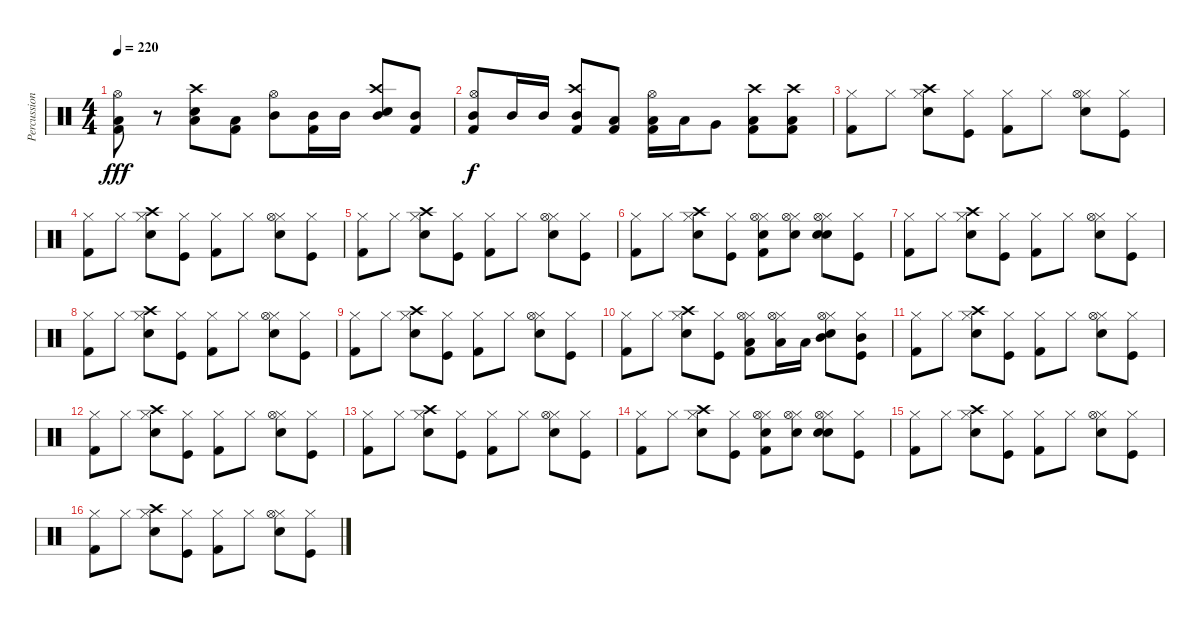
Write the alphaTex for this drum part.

\track ("Percussion" "Percussion") {instrument percussion}
\staff {score}
\articulation defaults
\ts (4 4)
\tempo 220
\clef neutral
\ks c
("Kick (hit) 2" "Low Tom (hit)" "Hi-Hat (open)").8{dy fff} r.8 ("Snare (hit) 2" "Low Tom (hit)" "Crash high (hit)").8 ("Kick (hit) 2" "Low Tom (hit)").8 ("Mid Tom (hit)" "Hi-Hat (open)").8 ("Kick (hit) 2" "Mid Tom (hit)").16 "Mid Tom (hit)".16 ("Snare (hit) 2" "Mid Tom (hit)" "Crash high (hit)").8 ("Kick (hit) 2" "Mid Tom (hit)").8 |
("Mid Tom (hit)" "Hi-Hat (open)" "Kick (hit) 2").8{dy f} "Mid Tom (hit)".16 "Mid Tom (hit)".16 ("Mid Tom (hit)" "Crash high (hit)" "Kick (hit) 2").8 ("Low Tom (hit)" "Kick (hit) 2").8 ("Low Tom (hit)" "Hi-Hat (open)" "Kick (hit) 2").16 "Low Tom (hit)".16 "Very Low Tom (hit)".8 ("Low Tom (hit)" "Crash high (hit)" "Kick (hit) 2").8 ("Low Floor Tom (hit)" "Crash high (hit)" "Kick (hit) 2").8 |
("Kick (hit) 2" "Hi-Hat (closed)").8 "Hi-Hat (closed)".8 ("Snare (hit) 2" "Hi-Hat (closed)" "Crash high (hit)").8 ("Kick (hit)" "Hi-Hat (closed)").8 ("Kick (hit) 2" "Hi-Hat (closed)").8 "Hi-Hat (closed)".8 ("Snare (hit) 2" "Hi-Hat (closed)" "Hi-Hat (open)").8 ("Kick (hit)" "Hi-Hat (closed)").8 |
("Kick (hit) 2" "Hi-Hat (closed)").8 "Hi-Hat (closed)".8 ("Snare (hit) 2" "Hi-Hat (closed)" "Crash high (hit)").8 ("Kick (hit)" "Hi-Hat (closed)").8 ("Kick (hit) 2" "Hi-Hat (closed)").8 "Hi-Hat (closed)".8 ("Snare (hit) 2" "Hi-Hat (closed)" "Hi-Hat (open)").8 ("Kick (hit)" "Hi-Hat (closed)").8 |
("Kick (hit) 2" "Hi-Hat (closed)").8 "Hi-Hat (closed)".8 ("Snare (hit) 2" "Hi-Hat (closed)" "Crash high (hit)").8 ("Kick (hit)" "Hi-Hat (closed)").8 ("Kick (hit) 2" "Hi-Hat (closed)").8 "Hi-Hat (closed)".8 ("Snare (hit) 2" "Hi-Hat (closed)" "Hi-Hat (open)").8 ("Kick (hit)" "Hi-Hat (closed)").8 |
("Kick (hit) 2" "Hi-Hat (closed)").8 "Hi-Hat (closed)".8 ("Snare (hit) 2" "Hi-Hat (closed)" "Crash high (hit)").8 ("Kick (hit)" "Hi-Hat (closed)").8 ("Kick (hit) 2" "Snare (hit) 2" "Hi-Hat (closed)" "Hi-Hat (open)").8 ("Snare (hit) 2" "Hi-Hat (closed)" "Hi-Hat (open)").8 ("Snare (hit) 2" "Snare (hit) 2" "Hi-Hat (closed)" "Hi-Hat (open)").8 ("Kick (hit)" "Hi-Hat (closed)").8 |
("Kick (hit) 2" "Hi-Hat (closed)").8 "Hi-Hat (closed)".8 ("Snare (hit) 2" "Hi-Hat (closed)" "Crash high (hit)").8 ("Kick (hit)" "Hi-Hat (closed)").8 ("Kick (hit) 2" "Hi-Hat (closed)").8 "Hi-Hat (closed)".8 ("Snare (hit) 2" "Hi-Hat (closed)" "Hi-Hat (open)").8 ("Kick (hit)" "Hi-Hat (closed)").8 |
("Kick (hit) 2" "Hi-Hat (closed)").8 "Hi-Hat (closed)".8 ("Snare (hit) 2" "Hi-Hat (closed)" "Crash high (hit)").8 ("Kick (hit)" "Hi-Hat (closed)").8 ("Kick (hit) 2" "Hi-Hat (closed)").8 "Hi-Hat (closed)".8 ("Snare (hit) 2" "Hi-Hat (closed)" "Hi-Hat (open)").8 ("Kick (hit)" "Hi-Hat (closed)").8 |
("Kick (hit) 2" "Hi-Hat (closed)").8 "Hi-Hat (closed)".8 ("Snare (hit) 2" "Hi-Hat (closed)" "Crash high (hit)").8 ("Kick (hit)" "Hi-Hat (closed)").8 ("Kick (hit) 2" "Hi-Hat (closed)").8 "Hi-Hat (closed)".8 ("Snare (hit) 2" "Hi-Hat (closed)" "Hi-Hat (open)").8 ("Kick (hit)" "Hi-Hat (closed)").8 |
("Kick (hit) 2" "Hi-Hat (closed)").8 "Hi-Hat (closed)".8 ("Snare (hit) 2" "Hi-Hat (closed)" "Crash high (hit)").8 ("Kick (hit)" "Hi-Hat (closed)").8 ("Kick (hit) 2" "Low Tom (hit)" "Hi-Hat (closed)" "Hi-Hat (open)").8 ("Low Tom (hit)" "Hi-Hat (closed)" "Hi-Hat (open)").16 "Low Tom (hit)".16 ("Snare (hit) 2" "Mid Tom (hit)" "Hi-Hat (closed)" "Hi-Hat (open)").8 ("Kick (hit)" "Mid Tom (hit)" "Hi-Hat (closed)").8 |
("Kick (hit) 2" "Hi-Hat (closed)").8 "Hi-Hat (closed)".8 ("Snare (hit) 2" "Hi-Hat (closed)" "Crash high (hit)").8 ("Kick (hit)" "Hi-Hat (closed)").8 ("Kick (hit) 2" "Hi-Hat (closed)").8 "Hi-Hat (closed)".8 ("Snare (hit) 2" "Hi-Hat (closed)" "Hi-Hat (open)").8 ("Kick (hit)" "Hi-Hat (closed)").8 |
("Kick (hit) 2" "Hi-Hat (closed)").8 "Hi-Hat (closed)".8 ("Snare (hit) 2" "Hi-Hat (closed)" "Crash high (hit)").8 ("Kick (hit)" "Hi-Hat (closed)").8 ("Kick (hit) 2" "Hi-Hat (closed)").8 "Hi-Hat (closed)".8 ("Snare (hit) 2" "Hi-Hat (closed)" "Hi-Hat (open)").8 ("Kick (hit)" "Hi-Hat (closed)").8 |
("Kick (hit) 2" "Hi-Hat (closed)").8 "Hi-Hat (closed)".8 ("Snare (hit) 2" "Hi-Hat (closed)" "Crash high (hit)").8 ("Kick (hit)" "Hi-Hat (closed)").8 ("Kick (hit) 2" "Hi-Hat (closed)").8 "Hi-Hat (closed)".8 ("Snare (hit) 2" "Hi-Hat (closed)" "Hi-Hat (open)").8 ("Kick (hit)" "Hi-Hat (closed)").8 |
("Kick (hit) 2" "Hi-Hat (closed)").8 "Hi-Hat (closed)".8 ("Snare (hit) 2" "Hi-Hat (closed)" "Crash high (hit)").8 ("Kick (hit)" "Hi-Hat (closed)").8 ("Kick (hit) 2" "Snare (hit) 2" "Hi-Hat (closed)" "Hi-Hat (open)").8 ("Snare (hit) 2" "Hi-Hat (closed)" "Hi-Hat (open)").8 ("Snare (hit) 2" "Snare (hit) 2" "Hi-Hat (closed)" "Hi-Hat (open)").8 ("Kick (hit)" "Hi-Hat (closed)").8 |
("Kick (hit) 2" "Hi-Hat (closed)").8 "Hi-Hat (closed)".8 ("Snare (hit) 2" "Hi-Hat (closed)" "Crash high (hit)").8 ("Kick (hit)" "Hi-Hat (closed)").8 ("Kick (hit) 2" "Hi-Hat (closed)").8 "Hi-Hat (closed)".8 ("Snare (hit) 2" "Hi-Hat (closed)" "Hi-Hat (open)").8 ("Kick (hit)" "Hi-Hat (closed)").8 |
("Kick (hit) 2" "Hi-Hat (closed)").8 "Hi-Hat (closed)".8 ("Snare (hit) 2" "Hi-Hat (closed)" "Crash high (hit)").8 ("Kick (hit)" "Hi-Hat (closed)").8 ("Kick (hit) 2" "Hi-Hat (closed)").8 "Hi-Hat (closed)".8 ("Snare (hit) 2" "Hi-Hat (closed)" "Hi-Hat (open)").8 ("Kick (hit)" "Hi-Hat (closed)").8
